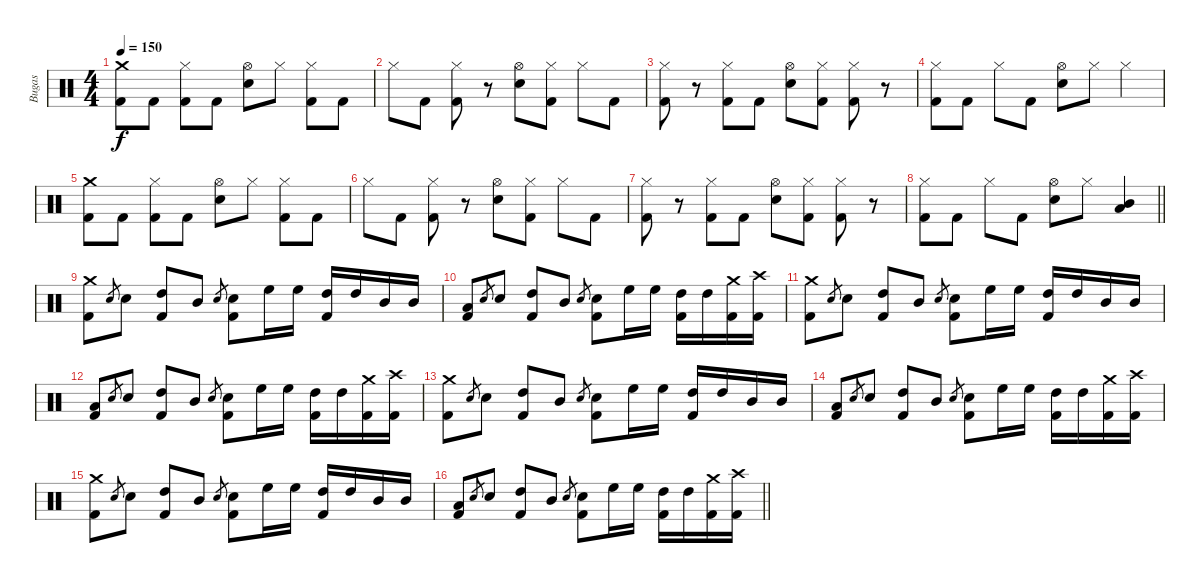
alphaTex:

\track ("Bugas" "Bugas") {instrument percussion}
\staff {score}
\articulation defaults
\ts (4 4)
\tempo 150
\clef neutral
\ks c
("Crash medium (hit)" "Kick (hit) 2").8{dy f} "Kick (hit) 2".8 ("Hi-Hat (closed)" "Kick (hit) 2").8 "Kick (hit) 2".8 ("Hi-Hat (open)" "Electric Snare (hit)").8 "Hi-Hat (closed)".8 ("Hi-Hat (closed)" "Kick (hit) 2").8 "Kick (hit) 2".8 |
"Hi-Hat (closed)".8 "Kick (hit) 2".8 ("Hi-Hat (closed)" "Kick (hit) 2").8 r.8 ("Hi-Hat (open)" "Electric Snare (hit)").8 ("Hi-Hat (closed)" "Kick (hit) 2").8 "Hi-Hat (closed)".8 "Kick (hit) 2".8 |
("Hi-Hat (closed)" "Kick (hit) 2").8 r.8 ("Hi-Hat (closed)" "Kick (hit) 2").8 "Kick (hit) 2".8 ("Hi-Hat (open)" "Electric Snare (hit)").8 ("Hi-Hat (closed)" "Kick (hit) 2").8 ("Hi-Hat (closed)" "Kick (hit) 2").8 r.8 |
("Hi-Hat (closed)" "Kick (hit) 2").8 "Kick (hit) 2".8 "Hi-Hat (closed)".8 "Kick (hit) 2".8 ("Hi-Hat (open)" "Electric Snare (hit)").8 "Hi-Hat (closed)".8 "Hi-Hat (closed)".4 |
("Crash medium (hit)" "Kick (hit) 2").8 "Kick (hit) 2".8 ("Hi-Hat (closed)" "Kick (hit) 2").8 "Kick (hit) 2".8 ("Hi-Hat (open)" "Electric Snare (hit)").8 "Hi-Hat (closed)".8 ("Hi-Hat (closed)" "Kick (hit) 2").8 "Kick (hit) 2".8 |
"Hi-Hat (closed)".8 "Kick (hit) 2".8 ("Hi-Hat (closed)" "Kick (hit) 2").8 r.8 ("Hi-Hat (open)" "Electric Snare (hit)").8 ("Hi-Hat (closed)" "Kick (hit) 2").8 "Hi-Hat (closed)".8 "Kick (hit) 2".8 |
("Hi-Hat (closed)" "Kick (hit) 2").8 r.8 ("Hi-Hat (closed)" "Kick (hit) 2").8 "Kick (hit) 2".8 ("Hi-Hat (open)" "Electric Snare (hit)").8 ("Hi-Hat (closed)" "Kick (hit) 2").8 ("Hi-Hat (closed)" "Kick (hit) 2").8 r.8 |
\barLineRight lightlight
("Hi-Hat (closed)" "Kick (hit) 2").8 "Kick (hit) 2".8 "Hi-Hat (closed)".8 "Kick (hit) 2".8 ("Hi-Hat (open)" "Electric Snare (hit)").8 "Hi-Hat (closed)".8 ("Mid Tom (hit)" "Low Tom (hit)").4 |
("Crash medium (hit)" "Kick (hit) 2").8 "Electric Snare (hit)".8{gr} "Electric Snare (hit)".8 ("High Tom (hit)" "Kick (hit) 2").8 "Mid Tom (hit)".8 "Electric Snare (hit)".8{gr} ("Electric Snare (hit)" "Kick (hit) 2").8 "High Floor Tom (hit)".16 "High Floor Tom (hit)".16 ("High Tom (hit)" "Kick (hit) 2").16 "High Tom (hit)".16 "Mid Tom (hit)".16 "Mid Tom (hit)".16 |
("Low Tom (hit)" "Kick (hit) 2").8 "Electric Snare (hit)".8{gr} "Electric Snare (hit)".8 ("High Tom (hit)" "Kick (hit) 2").8 "Mid Tom (hit)".8 "Electric Snare (hit)".8{gr} ("Electric Snare (hit)" "Kick (hit) 2").8 "High Floor Tom (hit)".16 "High Floor Tom (hit)".16 ("High Tom (hit)" "Kick (hit) 2").16 "High Tom (hit)".16 ("Crash medium (hit)" "Kick (hit) 2").16 ("Crash high (hit)" "Kick (hit) 2").16 |
("Crash medium (hit)" "Kick (hit) 2").8 "Electric Snare (hit)".8{gr} "Electric Snare (hit)".8 ("High Tom (hit)" "Kick (hit) 2").8 "Mid Tom (hit)".8 "Electric Snare (hit)".8{gr} ("Electric Snare (hit)" "Kick (hit) 2").8 "High Floor Tom (hit)".16 "High Floor Tom (hit)".16 ("High Tom (hit)" "Kick (hit) 2").16 "High Tom (hit)".16 "Mid Tom (hit)".16 "Mid Tom (hit)".16 |
("Low Tom (hit)" "Kick (hit) 2").8 "Electric Snare (hit)".8{gr} "Electric Snare (hit)".8 ("High Tom (hit)" "Kick (hit) 2").8 "Mid Tom (hit)".8 "Electric Snare (hit)".8{gr} ("Electric Snare (hit)" "Kick (hit) 2").8 "High Floor Tom (hit)".16 "High Floor Tom (hit)".16 ("High Tom (hit)" "Kick (hit) 2").16 "High Tom (hit)".16 ("Crash medium (hit)" "Kick (hit) 2").16 ("Crash high (hit)" "Kick (hit) 2").16 |
("Crash medium (hit)" "Kick (hit) 2").8 "Electric Snare (hit)".8{gr} "Electric Snare (hit)".8 ("High Tom (hit)" "Kick (hit) 2").8 "Mid Tom (hit)".8 "Electric Snare (hit)".8{gr} ("Electric Snare (hit)" "Kick (hit) 2").8 "High Floor Tom (hit)".16 "High Floor Tom (hit)".16 ("High Tom (hit)" "Kick (hit) 2").16 "High Tom (hit)".16 "Mid Tom (hit)".16 "Mid Tom (hit)".16 |
("Low Tom (hit)" "Kick (hit) 2").8 "Electric Snare (hit)".8{gr} "Electric Snare (hit)".8 ("High Tom (hit)" "Kick (hit) 2").8 "Mid Tom (hit)".8 "Electric Snare (hit)".8{gr} ("Electric Snare (hit)" "Kick (hit) 2").8 "High Floor Tom (hit)".16 "High Floor Tom (hit)".16 ("High Tom (hit)" "Kick (hit) 2").16 "High Tom (hit)".16 ("Crash medium (hit)" "Kick (hit) 2").16 ("Crash high (hit)" "Kick (hit) 2").16 |
("Crash medium (hit)" "Kick (hit) 2").8 "Electric Snare (hit)".8{gr} "Electric Snare (hit)".8 ("High Tom (hit)" "Kick (hit) 2").8 "Mid Tom (hit)".8 "Electric Snare (hit)".8{gr} ("Electric Snare (hit)" "Kick (hit) 2").8 "High Floor Tom (hit)".16 "High Floor Tom (hit)".16 ("High Tom (hit)" "Kick (hit) 2").16 "High Tom (hit)".16 "Mid Tom (hit)".16 "Mid Tom (hit)".16 |
\barLineRight lightlight
("Low Tom (hit)" "Kick (hit) 2").8 "Electric Snare (hit)".8{gr} "Electric Snare (hit)".8 ("High Tom (hit)" "Kick (hit) 2").8 "Mid Tom (hit)".8 "Electric Snare (hit)".8{gr} ("Electric Snare (hit)" "Kick (hit) 2").8 "High Floor Tom (hit)".16 "High Floor Tom (hit)".16 ("High Tom (hit)" "Kick (hit) 2").16 "High Tom (hit)".16 ("Crash medium (hit)" "Kick (hit) 2").16 ("Crash high (hit)" "Kick (hit) 2").16
